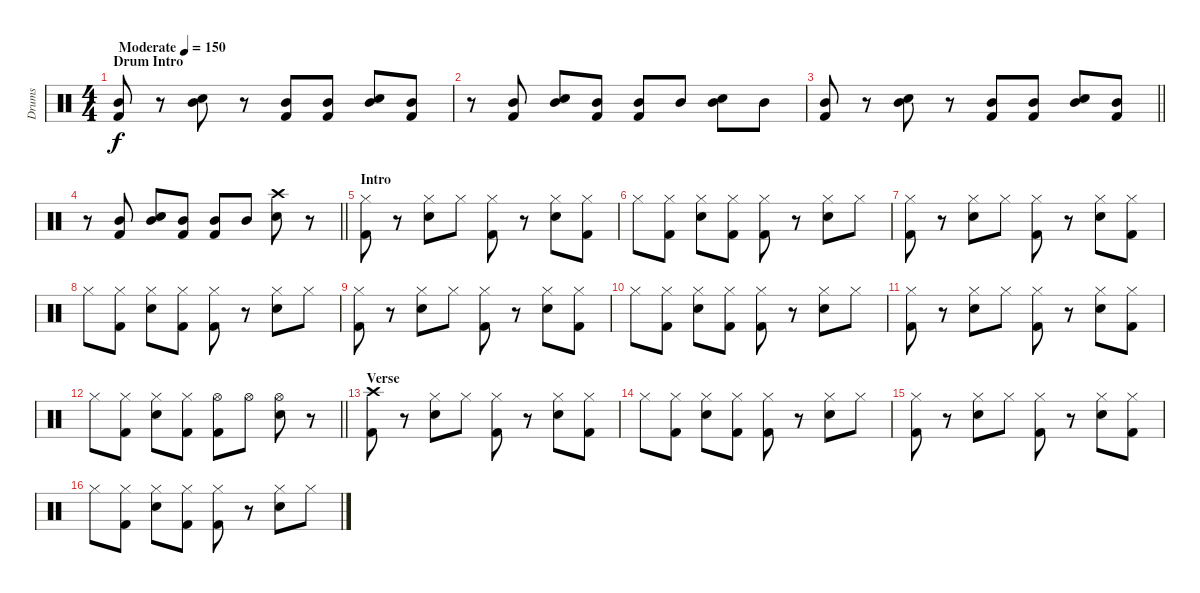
\track ("Drums" "Drums") {instrument percussion}
\staff {score}
\articulation defaults
\ts (4 4)
\section ("" "Drum Intro")
\tempo (150 "Moderate")
\clef neutral
\ks c
("Mid Tom (hit)" "Kick (hit) 2").8{dy f} r.8 ("Snare (hit) 2" "Mid Tom (hit)").8 r.8 ("Mid Tom (hit)" "Kick (hit) 2").8 ("Mid Tom (hit)" "Kick (hit) 2").8 ("Snare (hit) 2" "Mid Tom (hit)").8 ("Mid Tom (hit)" "Kick (hit) 2").8 |
r.8 ("Mid Tom (hit)" "Kick (hit) 2").8 ("Snare (hit) 2" "Mid Tom (hit)").8 ("Mid Tom (hit)" "Kick (hit) 2").8 ("Mid Tom (hit)" "Kick (hit) 2").8 "Mid Tom (hit)".8 ("Snare (hit) 2" "Mid Tom (hit)").8 "Mid Tom (hit)".8 |
\barLineRight lightlight
("Mid Tom (hit)" "Kick (hit) 2").8 r.8 ("Snare (hit) 2" "Mid Tom (hit)").8 r.8 ("Mid Tom (hit)" "Kick (hit) 2").8 ("Mid Tom (hit)" "Kick (hit) 2").8 ("Snare (hit) 2" "Mid Tom (hit)").8 ("Mid Tom (hit)" "Kick (hit) 2").8 |
\barLineRight lightlight
r.8 ("Mid Tom (hit)" "Kick (hit) 2").8 ("Snare (hit) 2" "Mid Tom (hit)").8 ("Mid Tom (hit)" "Kick (hit) 2").8 ("Mid Tom (hit)" "Kick (hit) 2").8 "Mid Tom (hit)".8 ("Snare (hit) 2" "Crash high (hit)").8 r.8 |
\section ("" "Intro")
("Hi-Hat (closed)" "Kick (hit) 2").8 r.8 ("Snare (hit) 2" "Hi-Hat (closed)").8 "Hi-Hat (closed)".8 ("Hi-Hat (closed)" "Kick (hit) 2").8 r.8 ("Snare (hit) 2" "Hi-Hat (closed)").8 ("Hi-Hat (closed)" "Kick (hit) 2").8 |
"Hi-Hat (closed)".8 ("Hi-Hat (closed)" "Kick (hit) 2").8 ("Snare (hit) 2" "Hi-Hat (closed)").8 ("Hi-Hat (closed)" "Kick (hit) 2").8 ("Hi-Hat (closed)" "Kick (hit) 2").8 r.8 ("Snare (hit) 2" "Hi-Hat (closed)").8 "Hi-Hat (closed)".8 |
("Hi-Hat (closed)" "Kick (hit) 2").8 r.8 ("Snare (hit) 2" "Hi-Hat (closed)").8 "Hi-Hat (closed)".8 ("Hi-Hat (closed)" "Kick (hit) 2").8 r.8 ("Snare (hit) 2" "Hi-Hat (closed)").8 ("Hi-Hat (closed)" "Kick (hit) 2").8 |
"Hi-Hat (closed)".8 ("Hi-Hat (closed)" "Kick (hit) 2").8 ("Snare (hit) 2" "Hi-Hat (closed)").8 ("Hi-Hat (closed)" "Kick (hit) 2").8 ("Hi-Hat (closed)" "Kick (hit) 2").8 r.8 ("Snare (hit) 2" "Hi-Hat (closed)").8 "Hi-Hat (closed)".8 |
("Hi-Hat (closed)" "Kick (hit) 2").8 r.8 ("Snare (hit) 2" "Hi-Hat (closed)").8 "Hi-Hat (closed)".8 ("Hi-Hat (closed)" "Kick (hit) 2").8 r.8 ("Snare (hit) 2" "Hi-Hat (closed)").8 ("Hi-Hat (closed)" "Kick (hit) 2").8 |
"Hi-Hat (closed)".8 ("Hi-Hat (closed)" "Kick (hit) 2").8 ("Snare (hit) 2" "Hi-Hat (closed)").8 ("Hi-Hat (closed)" "Kick (hit) 2").8 ("Hi-Hat (closed)" "Kick (hit) 2").8 r.8 ("Snare (hit) 2" "Hi-Hat (closed)").8 "Hi-Hat (closed)".8 |
("Hi-Hat (closed)" "Kick (hit) 2").8 r.8 ("Snare (hit) 2" "Hi-Hat (closed)").8 "Hi-Hat (closed)".8 ("Hi-Hat (closed)" "Kick (hit) 2").8 r.8 ("Snare (hit) 2" "Hi-Hat (closed)").8 ("Hi-Hat (closed)" "Kick (hit) 2").8 |
\barLineRight lightlight "Hi-Hat (closed)".8
("Hi-Hat (closed)" "Kick (hit) 2").8 ("Snare (hit) 2" "Hi-Hat (closed)").8 ("Hi-Hat (closed)" "Kick (hit) 2").8 ("Hi-Hat (open)" "Kick (hit) 2").8 "Hi-Hat (open)".8 ("Snare (hit) 2" "Hi-Hat (open)").8 r.8 |
\section ("" "Verse")
("Crash high (hit)" "Kick (hit) 2").8 r.8 ("Snare (hit) 2" "Hi-Hat (closed)").8 "Hi-Hat (closed)".8 ("Hi-Hat (closed)" "Kick (hit) 2").8 r.8 ("Snare (hit) 2" "Hi-Hat (closed)").8 ("Hi-Hat (closed)" "Kick (hit) 2").8 |
"Hi-Hat (closed)".8 ("Hi-Hat (closed)" "Kick (hit) 2").8 ("Snare (hit) 2" "Hi-Hat (closed)").8 ("Hi-Hat (closed)" "Kick (hit) 2").8 ("Hi-Hat (closed)" "Kick (hit) 2").8 r.8 ("Snare (hit) 2" "Hi-Hat (closed)").8 "Hi-Hat (closed)".8 |
("Hi-Hat (closed)" "Kick (hit) 2").8 r.8 ("Snare (hit) 2" "Hi-Hat (closed)").8 "Hi-Hat (closed)".8 ("Hi-Hat (closed)" "Kick (hit) 2").8 r.8 ("Snare (hit) 2" "Hi-Hat (closed)").8 ("Hi-Hat (closed)" "Kick (hit) 2").8 |
"Hi-Hat (closed)".8 ("Hi-Hat (closed)" "Kick (hit) 2").8 ("Snare (hit) 2" "Hi-Hat (closed)").8 ("Hi-Hat (closed)" "Kick (hit) 2").8 ("Hi-Hat (closed)" "Kick (hit) 2").8 r.8 ("Snare (hit) 2" "Hi-Hat (closed)").8 "Hi-Hat (closed)".8
